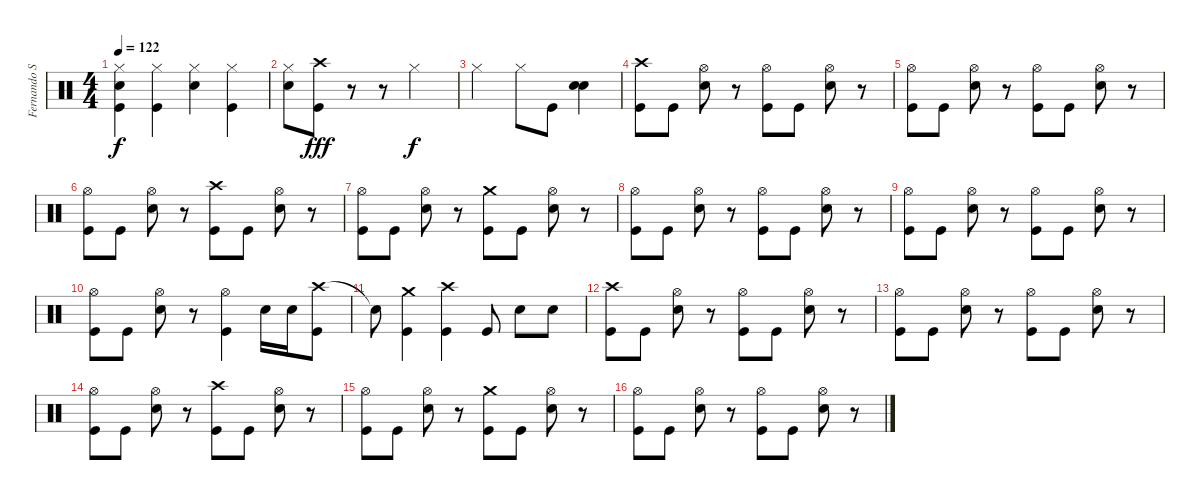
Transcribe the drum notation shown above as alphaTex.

\track ("Fernando Sanchez" "Fernando S") {instrument percussion}
\staff {score}
\articulation defaults
\ts (4 4)
\tempo 122
\clef neutral
\ks c
("Hi-Hat (closed)" "Electric Snare (hit)" "Kick (hit)").4{dy f} ("Hi-Hat (closed)" "Kick (hit)").4 ("Hi-Hat (closed)" "Electric Snare (hit)").4 ("Hi-Hat (closed)" "Kick (hit)").4 |
("Hi-Hat (closed)" "Electric Snare (hit)").8 ("Crash high (hit)" "Kick (hit)").8{dy fff} r.8 r.8 "Hi-Hat (closed)".2{dy f} |
"Hi-Hat (closed)".2 "Hi-Hat (closed)".8 "Kick (hit)".8 ("Electric Snare (hit)" "Electric Snare (hit)").4{bd 240} |
("Crash high (hit)" "Kick (hit)").8 "Kick (hit)".8 ("Hi-Hat (open)" "Electric Snare (hit)").8 r.8 ("Hi-Hat (open)" "Kick (hit)").8 "Kick (hit)".8 ("Hi-Hat (open)" "Electric Snare (hit)").8 r.8 |
("Hi-Hat (open)" "Kick (hit)").8 "Kick (hit)".8 ("Hi-Hat (open)" "Electric Snare (hit)").8 r.8 ("Hi-Hat (open)" "Kick (hit)").8 "Kick (hit)".8 ("Hi-Hat (open)" "Electric Snare (hit)").8 r.8 |
("Hi-Hat (open)" "Kick (hit)").8 "Kick (hit)".8 ("Hi-Hat (open)" "Electric Snare (hit)").8 r.8 ("Crash high (hit)" "Kick (hit)").8 "Kick (hit)".8 ("Hi-Hat (open)" "Electric Snare (hit)").8 r.8 |
("Hi-Hat (open)" "Kick (hit)").8 "Kick (hit)".8 ("Hi-Hat (open)" "Electric Snare (hit)").8 r.8 ("Crash medium (hit)" "Kick (hit)").8 "Kick (hit)".8 ("Hi-Hat (open)" "Electric Snare (hit)").8 r.8 |
("Hi-Hat (open)" "Kick (hit)").8 "Kick (hit)".8 ("Hi-Hat (open)" "Electric Snare (hit)").8 r.8 ("Hi-Hat (open)" "Kick (hit)").8 "Kick (hit)".8 ("Hi-Hat (open)" "Electric Snare (hit)").8 r.8 |
("Hi-Hat (open)" "Kick (hit)").8 "Kick (hit)".8 ("Hi-Hat (open)" "Electric Snare (hit)").8 r.8 ("Hi-Hat (open)" "Kick (hit)").8 "Kick (hit)".8 ("Hi-Hat (open)" "Electric Snare (hit)").8 r.8 |
("Hi-Hat (open)" "Kick (hit)").8 "Kick (hit)".8 ("Hi-Hat (open)" "Electric Snare (hit)").8 r.8 ("Hi-Hat (open)" "Kick (hit)").4 "Electric Snare (hit)".16 "Electric Snare (hit)".16 ("Crash high (hit)" "Kick (hit)").8 |
"Snare (hit)"{t}.8 ("Crash medium (hit)" "Kick (hit)").4 ("Crash high (hit)" "Kick (hit)").4 "Kick (hit)".8 "Electric Snare (hit)".8 "Electric Snare (hit)".8 |
("Crash high (hit)" "Kick (hit)").8 "Kick (hit)".8 ("Hi-Hat (open)" "Electric Snare (hit)").8 r.8 ("Hi-Hat (open)" "Kick (hit)").8 "Kick (hit)".8 ("Hi-Hat (open)" "Electric Snare (hit)").8 r.8 |
("Hi-Hat (open)" "Kick (hit)").8 "Kick (hit)".8 ("Hi-Hat (open)" "Electric Snare (hit)").8 r.8 ("Hi-Hat (open)" "Kick (hit)").8 "Kick (hit)".8 ("Hi-Hat (open)" "Electric Snare (hit)").8 r.8 |
("Hi-Hat (open)" "Kick (hit)").8 "Kick (hit)".8 ("Hi-Hat (open)" "Electric Snare (hit)").8 r.8 ("Crash high (hit)" "Kick (hit)").8 "Kick (hit)".8 ("Hi-Hat (open)" "Electric Snare (hit)").8 r.8 |
("Hi-Hat (open)" "Kick (hit)").8 "Kick (hit)".8 ("Hi-Hat (open)" "Electric Snare (hit)").8 r.8 ("Crash medium (hit)" "Kick (hit)").8 "Kick (hit)".8 ("Hi-Hat (open)" "Electric Snare (hit)").8 r.8 |
("Hi-Hat (open)" "Kick (hit)").8 "Kick (hit)".8 ("Hi-Hat (open)" "Electric Snare (hit)").8 r.8 ("Hi-Hat (open)" "Kick (hit)").8 "Kick (hit)".8 ("Hi-Hat (open)" "Electric Snare (hit)").8 r.8
